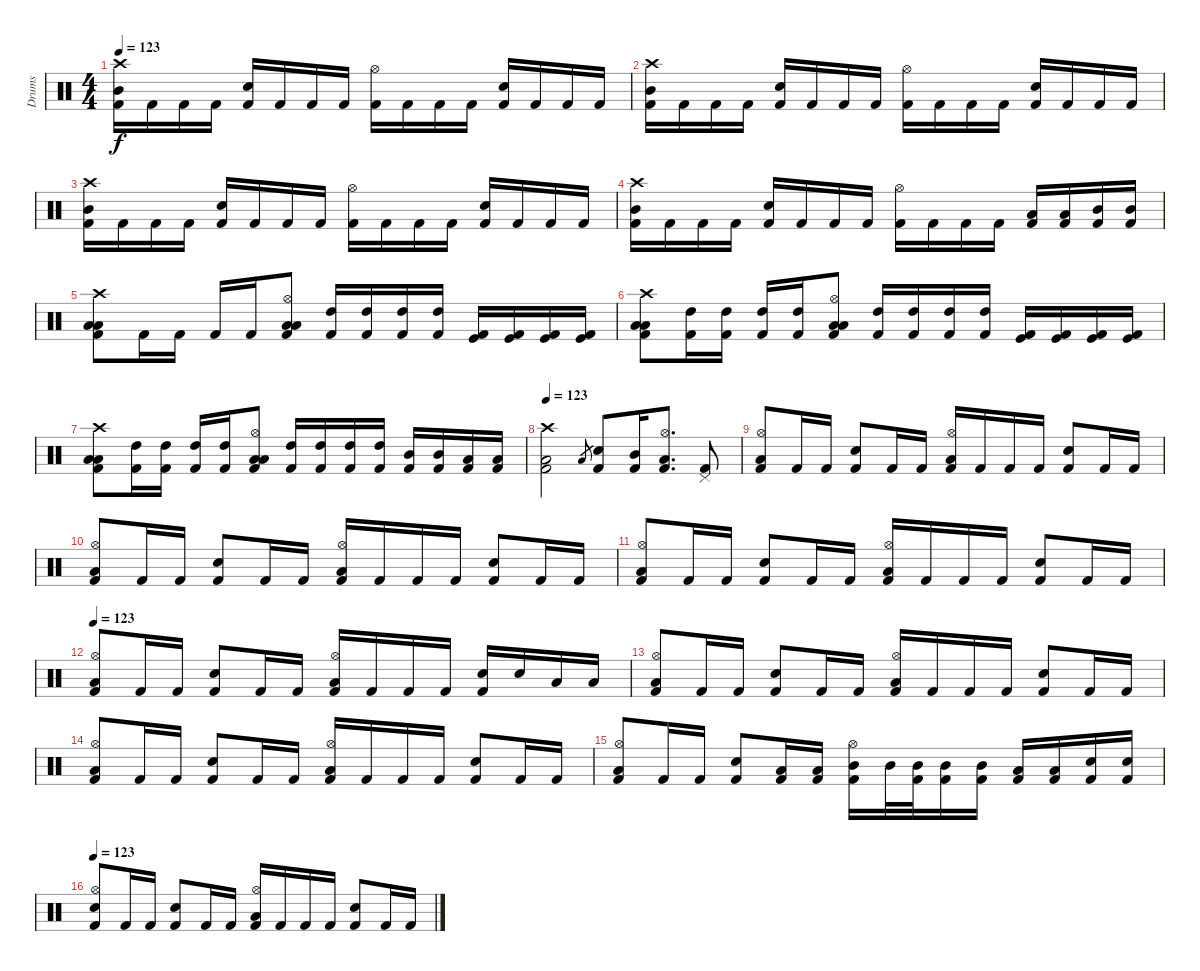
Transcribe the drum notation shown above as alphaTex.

\track ("Drums" "Drums") {instrument percussion}
\staff {score}
\articulation defaults
\ts (4 4)
\tempo 123
\clef neutral
\ks c
("Crash high (hit)" "Mid Tom (hit)" "Kick (hit) 2").16{dy f} "Kick (hit) 2".16 "Kick (hit) 2".16 "Kick (hit) 2".16 ("Snare (hit) 2" "Kick (hit) 2").16 "Kick (hit) 2".16 "Kick (hit) 2".16 "Kick (hit) 2".16 ("Hi-Hat (open)" "Kick (hit) 2").16 "Kick (hit) 2".16 "Kick (hit) 2".16 "Kick (hit) 2".16 ("Snare (hit) 2" "Kick (hit) 2").16 "Kick (hit) 2".16 "Kick (hit) 2".16 "Kick (hit) 2".16 |
("Crash high (hit)" "Mid Tom (hit)" "Kick (hit) 2").16 "Kick (hit) 2".16 "Kick (hit) 2".16 "Kick (hit) 2".16 ("Snare (hit) 2" "Kick (hit) 2").16 "Kick (hit) 2".16 "Kick (hit) 2".16 "Kick (hit) 2".16 ("Hi-Hat (open)" "Kick (hit) 2").16 "Kick (hit) 2".16 "Kick (hit) 2".16 "Kick (hit) 2".16 ("Snare (hit) 2" "Kick (hit) 2").16 "Kick (hit) 2".16 "Kick (hit) 2".16 "Kick (hit) 2".16 |
("Crash high (hit)" "Mid Tom (hit)" "Kick (hit) 2").16 "Kick (hit) 2".16 "Kick (hit) 2".16 "Kick (hit) 2".16 ("Snare (hit) 2" "Kick (hit) 2").16 "Kick (hit) 2".16 "Kick (hit) 2".16 "Kick (hit) 2".16 ("Hi-Hat (open)" "Kick (hit) 2").16 "Kick (hit) 2".16 "Kick (hit) 2".16 "Kick (hit) 2".16 ("Snare (hit) 2" "Kick (hit) 2").16 "Kick (hit) 2".16 "Kick (hit) 2".16 "Kick (hit) 2".16 |
("Crash high (hit)" "Mid Tom (hit)" "Kick (hit) 2").16 "Kick (hit) 2".16 "Kick (hit) 2".16 "Kick (hit) 2".16 ("Snare (hit) 2" "Kick (hit) 2").16 "Kick (hit) 2".16 "Kick (hit) 2".16 "Kick (hit) 2".16 ("Hi-Hat (open)" "Kick (hit) 2").16 "Kick (hit) 2".16 "Kick (hit) 2".16 "Kick (hit) 2".16 ("Low Tom (hit)" "Kick (hit) 2").16 ("Low Tom (hit)" "Kick (hit) 2").16 ("Mid Tom (hit)" "Kick (hit) 2").16 ("Mid Tom (hit)" "Kick (hit) 2").16 |
("Crash high (hit)" "Low Floor Tom (hit)" "Low Floor Tom (hit)" "Kick (hit) 2").8 "Kick (hit) 2".16 "Kick (hit) 2".16 "Kick (hit) 2".16 "Kick (hit) 2".16 ("Hi-Hat (open)" "Low Tom (hit)" "Low Tom (hit)" "Kick (hit) 2").8 ("High Tom (hit)" "Kick (hit) 2").16 ("High Tom (hit)" "Kick (hit) 2").16 ("High Tom (hit)" "Kick (hit) 2").16 ("High Tom (hit)" "Kick (hit) 2").16 ("Kick (hit)" "Kick (hit) 2").16 ("Kick (hit)" "Kick (hit) 2").16 ("Kick (hit)" "Kick (hit) 2").16 ("Kick (hit)" "Kick (hit) 2").16 |
("Crash high (hit)" "Low Floor Tom (hit)" "Low Floor Tom (hit)" "Kick (hit) 2").8 ("High Tom (hit)" "Kick (hit) 2").16 ("High Tom (hit)" "Kick (hit) 2").16 ("High Tom (hit)" "Kick (hit) 2").16 ("High Tom (hit)" "Kick (hit) 2").16 ("Hi-Hat (open)" "Low Tom (hit)" "Low Tom (hit)" "Kick (hit) 2").8 ("High Tom (hit)" "Kick (hit) 2").16 ("High Tom (hit)" "Kick (hit) 2").16 ("High Tom (hit)" "Kick (hit) 2").16 ("High Tom (hit)" "Kick (hit) 2").16 ("Kick (hit)" "Kick (hit) 2").16 ("Kick (hit)" "Kick (hit) 2").16 ("Kick (hit)" "Kick (hit) 2").16 ("Kick (hit)" "Kick (hit) 2").16 |
("Crash high (hit)" "Low Floor Tom (hit)" "Low Floor Tom (hit)" "Kick (hit) 2").8 ("High Tom (hit)" "Kick (hit) 2").16 ("High Tom (hit)" "Kick (hit) 2").16 ("High Tom (hit)" "Kick (hit) 2").16 ("High Tom (hit)" "Kick (hit) 2").16 ("Hi-Hat (open)" "Low Tom (hit)" "Low Tom (hit)" "Kick (hit) 2").8 ("High Tom (hit)" "Kick (hit) 2").16 ("High Tom (hit)" "Kick (hit) 2").16 ("High Tom (hit)" "Kick (hit) 2").16 ("High Tom (hit)" "Kick (hit) 2").16 ("Mid Tom (hit)" "Kick (hit) 2").16 ("Mid Tom (hit)" "Kick (hit) 2").16 ("Low Tom (hit)" "Kick (hit) 2").16 ("Low Tom (hit)" "Kick (hit) 2").16 |
\tempo 123
("Crash high (hit)" "Low Floor Tom (hit)" "Kick (hit) 2").2 "Low Tom (hit)".8{gr} ("Snare (hit) 2" "Kick (hit) 2").8 ("Mid Tom (hit)" "Kick (hit) 2").16 ("Hi-Hat (open)" "Low Floor Tom (hit)" "Kick (hit) 2").8{d} ("Pedal Hi-Hat (hit)" "Kick (hit) 2").8 |
("Hi-Hat (open)" "Low Floor Tom (hit)" "Kick (hit) 2").8 "Kick (hit) 2".16 "Kick (hit) 2".16 ("Snare (hit) 2" "Kick (hit) 2").8 "Kick (hit) 2".16 "Kick (hit) 2".16 ("Hi-Hat (open)" "Low Floor Tom (hit)" "Kick (hit) 2").16 "Kick (hit) 2".16 "Kick (hit) 2".16 "Kick (hit) 2".16 ("Snare (hit) 2" "Kick (hit) 2").8 "Kick (hit) 2".16 "Kick (hit) 2".16 |
("Hi-Hat (open)" "Low Floor Tom (hit)" "Kick (hit) 2").8 "Kick (hit) 2".16 "Kick (hit) 2".16 ("Snare (hit) 2" "Kick (hit) 2").8 "Kick (hit) 2".16 "Kick (hit) 2".16 ("Hi-Hat (open)" "Low Floor Tom (hit)" "Kick (hit) 2").16 "Kick (hit) 2".16 "Kick (hit) 2".16 "Kick (hit) 2".16 ("Snare (hit) 2" "Kick (hit) 2").8 "Kick (hit) 2".16 "Kick (hit) 2".16 |
("Hi-Hat (open)" "Low Floor Tom (hit)" "Kick (hit) 2").8 "Kick (hit) 2".16 "Kick (hit) 2".16 ("Snare (hit) 2" "Kick (hit) 2").8 "Kick (hit) 2".16 "Kick (hit) 2".16 ("Hi-Hat (open)" "Low Floor Tom (hit)" "Kick (hit) 2").16 "Kick (hit) 2".16 "Kick (hit) 2".16 "Kick (hit) 2".16 ("Snare (hit) 2" "Kick (hit) 2").8 "Kick (hit) 2".16 "Kick (hit) 2".16 |
\tempo 123
("Hi-Hat (open)" "Low Floor Tom (hit)" "Kick (hit) 2").8 "Kick (hit) 2".16 "Kick (hit) 2".16 ("Snare (hit) 2" "Kick (hit) 2").8 "Kick (hit) 2".16 "Kick (hit) 2".16 ("Hi-Hat (open)" "Low Floor Tom (hit)" "Kick (hit) 2").16 "Kick (hit) 2".16 "Kick (hit) 2".16 "Kick (hit) 2".16 ("Snare (hit) 2" "Kick (hit) 2").16 "Snare (hit) 2".16 "Low Tom (hit)".16 "Low Tom (hit)".16 |
("Hi-Hat (open)" "Low Floor Tom (hit)" "Kick (hit) 2").8 "Kick (hit) 2".16 "Kick (hit) 2".16 ("Snare (hit) 2" "Kick (hit) 2").8 "Kick (hit) 2".16 "Kick (hit) 2".16 ("Hi-Hat (open)" "Low Floor Tom (hit)" "Kick (hit) 2").16 "Kick (hit) 2".16 "Kick (hit) 2".16 "Kick (hit) 2".16 ("Snare (hit) 2" "Kick (hit) 2").8 "Kick (hit) 2".16 "Kick (hit) 2".16 |
("Hi-Hat (open)" "Low Floor Tom (hit)" "Kick (hit) 2").8 "Kick (hit) 2".16 "Kick (hit) 2".16 ("Snare (hit) 2" "Kick (hit) 2").8 "Kick (hit) 2".16 "Kick (hit) 2".16 ("Hi-Hat (open)" "Low Floor Tom (hit)" "Kick (hit) 2").16 "Kick (hit) 2".16 "Kick (hit) 2".16 "Kick (hit) 2".16 ("Snare (hit) 2" "Kick (hit) 2").8 "Kick (hit) 2".16 "Kick (hit) 2".16 |
("Hi-Hat (open)" "Low Floor Tom (hit)" "Kick (hit) 2").8 "Kick (hit) 2".16 "Kick (hit) 2".16 ("Snare (hit) 2" "Kick (hit) 2").8 ("Low Tom (hit)" "Kick (hit) 2").16 ("Low Tom (hit)" "Kick (hit) 2").16 ("Hi-Hat (open)" "Mid Tom (hit)" "Kick (hit) 2").16 "Mid Tom (hit)".32 ("Mid Tom (hit)" "Kick (hit) 2").32 ("Mid Tom (hit)" "Kick (hit) 2").16 ("Mid Tom (hit)" "Kick (hit) 2").16 ("Low Tom (hit)" "Kick (hit) 2").16 ("Low Tom (hit)" "Kick (hit) 2").16 ("Electric Snare (hit)" "Kick (hit) 2").16 ("Electric Snare (hit)" "Kick (hit) 2").16 |
\tempo 123
("Hi-Hat (open)" "Electric Snare (hit)" "Kick (hit) 2").8 "Kick (hit) 2".16 "Kick (hit) 2".16 ("Snare (hit) 2" "Kick (hit) 2").8 "Kick (hit) 2".16 "Kick (hit) 2".16 ("Hi-Hat (open)" "Low Floor Tom (hit)" "Kick (hit) 2").16 "Kick (hit) 2".16 "Kick (hit) 2".16 "Kick (hit) 2".16 ("Snare (hit) 2" "Kick (hit) 2").8 "Kick (hit) 2".16 "Kick (hit) 2".16
